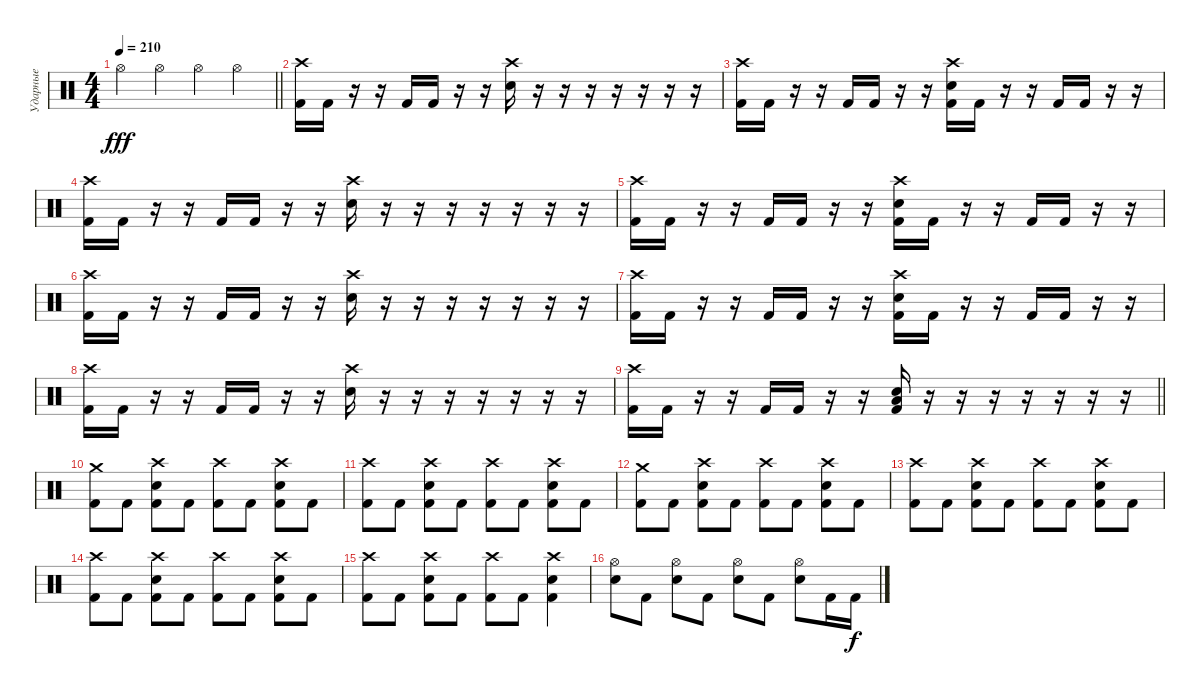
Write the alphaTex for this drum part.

\track ("Ударные" "Ударные") {instrument percussion}
\staff {score}
\articulation defaults
\ts (4 4)
\tempo 210
\clef neutral
\barLineRight lightlight
\ks c "Hi-Hat (open)".4{dy fff} "Hi-Hat (open)".4 "Hi-Hat (open)".4 "Hi-Hat (open)".4
|
("Crash high (hit)" "Kick (hit) 2").16 "Kick (hit) 2".16 r.16 r.16 "Kick (hit) 2".16 "Kick (hit) 2".16 r.16 r.16 ("Crash high (hit)" "Electric Snare (hit)").16 r.16 r.16 r.16 r.16 r.16 r.16 r.16 |
("Crash high (hit)" "Kick (hit) 2").16 "Kick (hit) 2".16 r.16 r.16 "Kick (hit) 2".16 "Kick (hit) 2".16 r.16 r.16 ("Crash high (hit)" "Electric Snare (hit)" "Kick (hit) 2").16 "Kick (hit) 2".16 r.16 r.16 "Kick (hit) 2".16 "Kick (hit) 2".16 r.16 r.16 |
("Crash high (hit)" "Kick (hit) 2").16 "Kick (hit) 2".16 r.16 r.16 "Kick (hit) 2".16 "Kick (hit) 2".16 r.16 r.16 ("Crash high (hit)" "Electric Snare (hit)").16 r.16 r.16 r.16 r.16 r.16 r.16 r.16 |
("Crash high (hit)" "Kick (hit) 2").16 "Kick (hit) 2".16 r.16 r.16 "Kick (hit) 2".16 "Kick (hit) 2".16 r.16 r.16 ("Crash high (hit)" "Electric Snare (hit)" "Kick (hit) 2").16 "Kick (hit) 2".16 r.16 r.16 "Kick (hit) 2".16 "Kick (hit) 2".16 r.16 r.16 |
("Crash high (hit)" "Kick (hit) 2").16 "Kick (hit) 2".16 r.16 r.16 "Kick (hit) 2".16 "Kick (hit) 2".16 r.16 r.16 ("Crash high (hit)" "Electric Snare (hit)").16 r.16 r.16 r.16 r.16 r.16 r.16 r.16 |
("Crash high (hit)" "Kick (hit) 2").16 "Kick (hit) 2".16 r.16 r.16 "Kick (hit) 2".16 "Kick (hit) 2".16 r.16 r.16 ("Crash high (hit)" "Electric Snare (hit)" "Kick (hit) 2").16 "Kick (hit) 2".16 r.16 r.16 "Kick (hit) 2".16 "Kick (hit) 2".16 r.16 r.16 |
("Crash high (hit)" "Kick (hit) 2").16 "Kick (hit) 2".16 r.16 r.16 "Kick (hit) 2".16 "Kick (hit) 2".16 r.16 r.16 ("Crash high (hit)" "Electric Snare (hit)").16 r.16 r.16 r.16 r.16 r.16 r.16 r.16 |
\barLineRight lightlight
("Crash high (hit)" "Kick (hit) 2").16 "Kick (hit) 2".16 r.16 r.16 "Kick (hit) 2".16 "Kick (hit) 2".16 r.16 r.16 ("Low Floor Tom (hit)" "Electric Snare (hit)" "Kick (hit) 2").16 r.16 r.16 r.16 r.16 r.16 r.16 r.16 |
("Crash medium (hit)" "Kick (hit) 2").8 "Kick (hit) 2".8 ("Crash high (hit)" "Electric Snare (hit)" "Kick (hit) 2").8 "Kick (hit) 2".8 ("Crash high (hit)" "Kick (hit) 2").8 "Kick (hit) 2".8 ("Crash high (hit)" "Electric Snare (hit)" "Kick (hit) 2").8 "Kick (hit) 2".8 |
("Crash high (hit)" "Kick (hit) 2").8 "Kick (hit) 2".8 ("Crash high (hit)" "Electric Snare (hit)" "Kick (hit) 2").8 "Kick (hit) 2".8 ("Crash high (hit)" "Kick (hit) 2").8 "Kick (hit) 2".8 ("Crash high (hit)" "Electric Snare (hit)" "Kick (hit) 2").8 "Kick (hit) 2".8 |
("Crash medium (hit)" "Kick (hit) 2").8 "Kick (hit) 2".8 ("Crash high (hit)" "Electric Snare (hit)" "Kick (hit) 2").8 "Kick (hit) 2".8 ("Crash high (hit)" "Kick (hit) 2").8 "Kick (hit) 2".8 ("Crash high (hit)" "Electric Snare (hit)" "Kick (hit) 2").8 "Kick (hit) 2".8 |
("Crash high (hit)" "Kick (hit) 2").8 "Kick (hit) 2".8 ("Crash high (hit)" "Electric Snare (hit)" "Kick (hit) 2").8 "Kick (hit) 2".8 ("Crash high (hit)" "Kick (hit) 2").8 "Kick (hit) 2".8 ("Crash high (hit)" "Electric Snare (hit)" "Kick (hit) 2").8 "Kick (hit) 2".8 |
("Crash high (hit)" "Kick (hit) 2").8 "Kick (hit) 2".8 ("Crash high (hit)" "Electric Snare (hit)" "Kick (hit) 2").8 "Kick (hit) 2".8 ("Crash high (hit)" "Kick (hit) 2").8 "Kick (hit) 2".8 ("Crash high (hit)" "Electric Snare (hit)" "Kick (hit) 2").8 "Kick (hit) 2".8 |
("Crash high (hit)" "Kick (hit) 2").8 "Kick (hit) 2".8 ("Crash high (hit)" "Electric Snare (hit)" "Kick (hit) 2").8 "Kick (hit) 2".8 ("Crash high (hit)" "Kick (hit) 2").8 "Kick (hit) 2".8 ("Crash high (hit)" "Electric Snare (hit)" "Kick (hit) 2").4 |
("Hi-Hat (open)" "Electric Snare (hit)").8 "Kick (hit) 2".8 ("Hi-Hat (open)" "Electric Snare (hit)").8 "Kick (hit) 2".8 ("Hi-Hat (open)" "Electric Snare (hit)").8 "Kick (hit) 2".8 ("Hi-Hat (open)" "Electric Snare (hit)").8 "Kick (hit) 2".16 "Kick (hit) 2".16{dy f}
